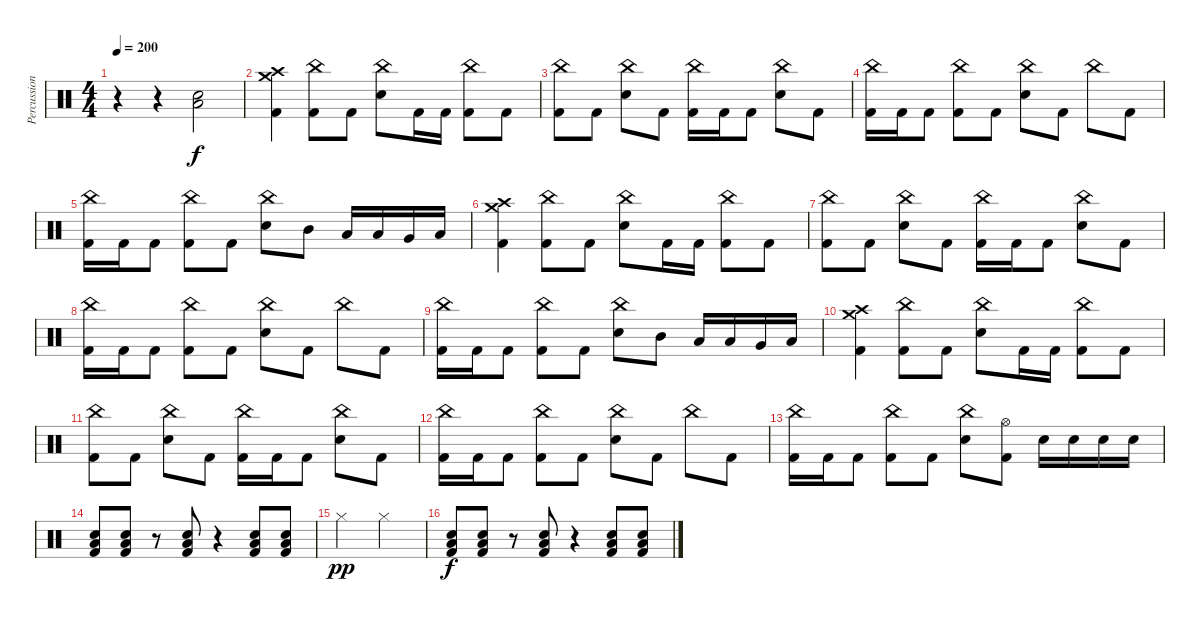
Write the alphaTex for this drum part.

\track ("Percussions" "Percussion") {instrument percussion}
\staff {score}
\articulation defaults
\ts (4 4)
\tempo 200
\clef neutral
\ks c
r.4{dy f} r.4 ("Low Floor Tom (hit)" "Snare (hit) 2").2 |
("Crash high (hit)" "Crash medium (hit)" "Kick (hit) 2").4 ("China (hit)" "Kick (hit) 2").8 "Kick (hit) 2".8 ("China (hit)" "Snare (hit) 2").8 "Kick (hit) 2".16 "Kick (hit) 2".16 ("China (hit)" "Kick (hit) 2").8 "Kick (hit) 2".8 |
("China (hit)" "Kick (hit) 2").8 "Kick (hit) 2".8 ("China (hit)" "Snare (hit) 2").8 "Kick (hit) 2".8 ("China (hit)" "Kick (hit) 2").16 "Kick (hit) 2".16 "Kick (hit) 2".8 ("China (hit)" "Snare (hit) 2").8 "Kick (hit) 2".8 |
("China (hit)" "Kick (hit) 2").16 "Kick (hit) 2".16 "Kick (hit) 2".8 ("China (hit)" "Kick (hit) 2").8 "Kick (hit) 2".8 ("China (hit)" "Snare (hit) 2").8 "Kick (hit) 2".8 "China (hit)".8 "Kick (hit) 2".8 |
("China (hit)" "Kick (hit) 2").16 "Kick (hit) 2".16 "Kick (hit) 2".8 ("China (hit)" "Kick (hit) 2").8 "Kick (hit) 2".8 ("China (hit)" "Snare (hit) 2").8 "Mid Tom (hit)".8 "Low Tom (hit)".16 "Low Tom (hit)".16 "Very Low Tom (hit)".16 "Low Floor Tom (hit)".16 |
("Crash high (hit)" "Crash medium (hit)" "Kick (hit) 2").4 ("China (hit)" "Kick (hit) 2").8 "Kick (hit) 2".8 ("China (hit)" "Snare (hit) 2").8 "Kick (hit) 2".16 "Kick (hit) 2".16 ("China (hit)" "Kick (hit) 2").8 "Kick (hit) 2".8 |
("China (hit)" "Kick (hit) 2").8 "Kick (hit) 2".8 ("China (hit)" "Snare (hit) 2").8 "Kick (hit) 2".8 ("China (hit)" "Kick (hit) 2").16 "Kick (hit) 2".16 "Kick (hit) 2".8 ("China (hit)" "Snare (hit) 2").8 "Kick (hit) 2".8 |
("China (hit)" "Kick (hit) 2").16 "Kick (hit) 2".16 "Kick (hit) 2".8 ("China (hit)" "Kick (hit) 2").8 "Kick (hit) 2".8 ("China (hit)" "Snare (hit) 2").8 "Kick (hit) 2".8 "China (hit)".8 "Kick (hit) 2".8 |
("China (hit)" "Kick (hit) 2").16 "Kick (hit) 2".16 "Kick (hit) 2".8 ("China (hit)" "Kick (hit) 2").8 "Kick (hit) 2".8 ("China (hit)" "Snare (hit) 2").8 "Mid Tom (hit)".8 "Low Tom (hit)".16 "Low Tom (hit)".16 "Very Low Tom (hit)".16 "Low Floor Tom (hit)".16 |
("Crash high (hit)" "Crash medium (hit)" "Kick (hit) 2").4 ("China (hit)" "Kick (hit) 2").8 "Kick (hit) 2".8 ("China (hit)" "Snare (hit) 2").8 "Kick (hit) 2".16 "Kick (hit) 2".16 ("China (hit)" "Kick (hit) 2").8 "Kick (hit) 2".8 |
("China (hit)" "Kick (hit) 2").8 "Kick (hit) 2".8 ("China (hit)" "Snare (hit) 2").8 "Kick (hit) 2".8 ("China (hit)" "Kick (hit) 2").16 "Kick (hit) 2".16 "Kick (hit) 2".8 ("China (hit)" "Snare (hit) 2").8 "Kick (hit) 2".8 |
("China (hit)" "Kick (hit) 2").16 "Kick (hit) 2".16 "Kick (hit) 2".8 ("China (hit)" "Kick (hit) 2").8 "Kick (hit) 2".8 ("China (hit)" "Snare (hit) 2").8 "Kick (hit) 2".8 "China (hit)".8 "Kick (hit) 2".8 |
("China (hit)" "Kick (hit) 2").16 "Kick (hit) 2".16 "Kick (hit) 2".8 ("China (hit)" "Kick (hit) 2").8 "Kick (hit) 2".8 ("China (hit)" "Snare (hit) 2").8 ("Hi-Hat (open)" "Kick (hit) 2").8 "Snare (hit) 2".16 "Snare (hit) 2".16 "Snare (hit) 2".16 "Snare (hit) 2".16 |
("Low Floor Tom (hit)" "Snare (hit) 2" "Kick (hit) 2").8 ("Low Floor Tom (hit)" "Snare (hit) 2" "Kick (hit) 2").8 r.8 ("Low Floor Tom (hit)" "Snare (hit) 2" "Kick (hit) 2").8 r.4 ("Low Floor Tom (hit)" "Snare (hit) 2" "Kick (hit) 2").8 ("Low Floor Tom (hit)" "Snare (hit) 2" "Kick (hit) 2").8 |
"Hi-Hat (closed)".2{dy pp} "Hi-Hat (closed)".2 |
("Low Floor Tom (hit)" "Snare (hit) 2" "Kick (hit) 2").8{dy f} ("Low Floor Tom (hit)" "Snare (hit) 2" "Kick (hit) 2").8 r.8 ("Low Floor Tom (hit)" "Snare (hit) 2" "Kick (hit) 2").8 r.4 ("Low Floor Tom (hit)" "Snare (hit) 2" "Kick (hit) 2").8 ("Low Floor Tom (hit)" "Snare (hit) 2" "Kick (hit) 2").8
